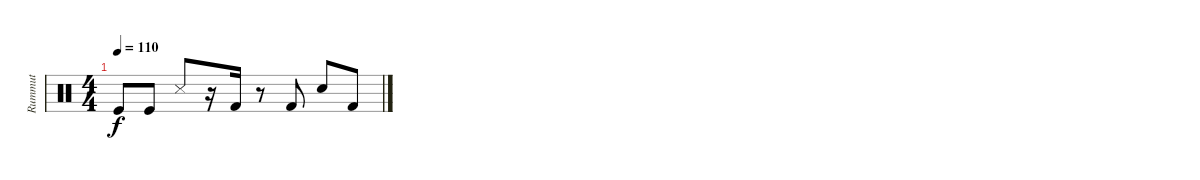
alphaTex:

\track ("Rummut" "Rummut") {instrument percussion}
\staff {score}
\articulation defaults
\ts (4 4)
\tempo 110
\clef neutral
\ks c "Kick (hit)".8{dy f} "Kick (hit)".8 "Snare (side stick) 3".8
r.16 "Kick (hit) 2".16 r.8 "Kick (hit) 2".8 "Snare (hit) 2".8 "Kick (hit) 2".8
